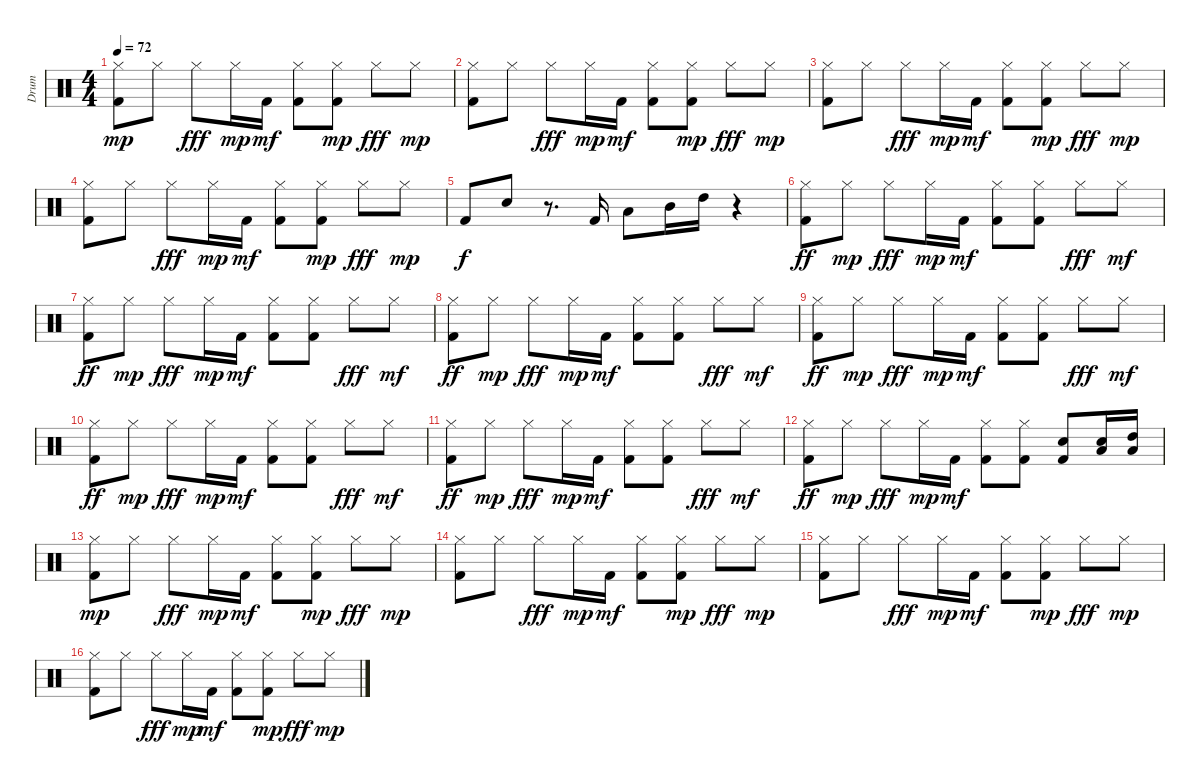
\track ("Drum" "Drum") {instrument percussion}
\staff {score}
\articulation defaults
\ts (4 4)
\tempo 72
\clef neutral
\ks c
("Hi-Hat (closed)" "Kick (hit) 2").8{dy mp} "Hi-Hat (closed)".8 "Hi-Hat (closed)".8{dy fff} "Hi-Hat (closed)".16{dy mp} "Kick (hit) 2".16{dy mf} ("Hi-Hat (closed)" "Kick (hit) 2").8 ("Hi-Hat (closed)" "Kick (hit) 2").8{dy mp} "Hi-Hat (closed)".8{dy fff} "Hi-Hat (closed)".8{dy mp} |
("Hi-Hat (closed)" "Kick (hit) 2").8 "Hi-Hat (closed)".8 "Hi-Hat (closed)".8{dy fff} "Hi-Hat (closed)".16{dy mp} "Kick (hit) 2".16{dy mf} ("Hi-Hat (closed)" "Kick (hit) 2").8 ("Hi-Hat (closed)" "Kick (hit) 2").8{dy mp} "Hi-Hat (closed)".8{dy fff} "Hi-Hat (closed)".8{dy mp} |
("Hi-Hat (closed)" "Kick (hit) 2").8 "Hi-Hat (closed)".8 "Hi-Hat (closed)".8{dy fff} "Hi-Hat (closed)".16{dy mp} "Kick (hit) 2".16{dy mf} ("Hi-Hat (closed)" "Kick (hit) 2").8 ("Hi-Hat (closed)" "Kick (hit) 2").8{dy mp} "Hi-Hat (closed)".8{dy fff} "Hi-Hat (closed)".8{dy mp} |
("Hi-Hat (closed)" "Kick (hit) 2").8 "Hi-Hat (closed)".8 "Hi-Hat (closed)".8{dy fff} "Hi-Hat (closed)".16{dy mp} "Kick (hit) 2".16{dy mf} ("Hi-Hat (closed)" "Kick (hit) 2").8 ("Hi-Hat (closed)" "Kick (hit) 2").8{dy mp} "Hi-Hat (closed)".8{dy fff} "Hi-Hat (closed)".8{dy mp} |
"Kick (hit) 2".8{dy f} "Snare (hit) 2".8 r.8{d} "Kick (hit) 2".16 "Low Floor Tom (hit)".8 "Mid Tom (hit)".16 "High Tom (hit)".16 r.4 |
("Hi-Hat (closed)" "Kick (hit) 2").8{dy ff} "Hi-Hat (closed)".8{dy mp} "Hi-Hat (closed)".8{dy fff} "Hi-Hat (closed)".16{dy mp} "Kick (hit) 2".16{dy mf} ("Hi-Hat (closed)" "Kick (hit) 2").8 ("Hi-Hat (closed)" "Kick (hit) 2").8 "Hi-Hat (closed)".8{dy fff} "Hi-Hat (closed)".8{dy mf} |
("Hi-Hat (closed)" "Kick (hit) 2").8{dy ff} "Hi-Hat (closed)".8{dy mp} "Hi-Hat (closed)".8{dy fff} "Hi-Hat (closed)".16{dy mp} "Kick (hit) 2".16{dy mf} ("Hi-Hat (closed)" "Kick (hit) 2").8 ("Hi-Hat (closed)" "Kick (hit) 2").8 "Hi-Hat (closed)".8{dy fff} "Hi-Hat (closed)".8{dy mf} |
("Hi-Hat (closed)" "Kick (hit) 2").8{dy ff} "Hi-Hat (closed)".8{dy mp} "Hi-Hat (closed)".8{dy fff} "Hi-Hat (closed)".16{dy mp} "Kick (hit) 2".16{dy mf} ("Hi-Hat (closed)" "Kick (hit) 2").8 ("Hi-Hat (closed)" "Kick (hit) 2").8 "Hi-Hat (closed)".8{dy fff} "Hi-Hat (closed)".8{dy mf} |
("Hi-Hat (closed)" "Kick (hit) 2").8{dy ff} "Hi-Hat (closed)".8{dy mp} "Hi-Hat (closed)".8{dy fff} "Hi-Hat (closed)".16{dy mp} "Kick (hit) 2".16{dy mf} ("Hi-Hat (closed)" "Kick (hit) 2").8 ("Hi-Hat (closed)" "Kick (hit) 2").8 "Hi-Hat (closed)".8{dy fff} "Hi-Hat (closed)".8{dy mf} |
("Hi-Hat (closed)" "Kick (hit) 2").8{dy ff} "Hi-Hat (closed)".8{dy mp} "Hi-Hat (closed)".8{dy fff} "Hi-Hat (closed)".16{dy mp} "Kick (hit) 2".16{dy mf} ("Hi-Hat (closed)" "Kick (hit) 2").8 ("Hi-Hat (closed)" "Kick (hit) 2").8 "Hi-Hat (closed)".8{dy fff} "Hi-Hat (closed)".8{dy mf} |
("Hi-Hat (closed)" "Kick (hit) 2").8{dy ff} "Hi-Hat (closed)".8{dy mp} "Hi-Hat (closed)".8{dy fff} "Hi-Hat (closed)".16{dy mp} "Kick (hit) 2".16{dy mf} ("Hi-Hat (closed)" "Kick (hit) 2").8 ("Hi-Hat (closed)" "Kick (hit) 2").8 "Hi-Hat (closed)".8{dy fff} "Hi-Hat (closed)".8{dy mf} |
("Hi-Hat (closed)" "Kick (hit) 2").8{dy ff} "Hi-Hat (closed)".8{dy mp} "Hi-Hat (closed)".8{dy fff} "Hi-Hat (closed)".16{dy mp} "Kick (hit) 2".16{dy mf} ("Hi-Hat (closed)" "Kick (hit) 2").8 ("Hi-Hat (closed)" "Kick (hit) 2").8 ("Kick (hit) 2" "Electric Snare (hit)").8 ("Low Tom (hit)" "Electric Snare (hit)").16 ("Low Tom (hit)" "High Tom (hit)").16 |
("Hi-Hat (closed)" "Kick (hit) 2").8{dy mp} "Hi-Hat (closed)".8 "Hi-Hat (closed)".8{dy fff} "Hi-Hat (closed)".16{dy mp} "Kick (hit) 2".16{dy mf} ("Hi-Hat (closed)" "Kick (hit) 2").8 ("Hi-Hat (closed)" "Kick (hit) 2").8{dy mp} "Hi-Hat (closed)".8{dy fff} "Hi-Hat (closed)".8{dy mp} |
("Hi-Hat (closed)" "Kick (hit) 2").8 "Hi-Hat (closed)".8 "Hi-Hat (closed)".8{dy fff} "Hi-Hat (closed)".16{dy mp} "Kick (hit) 2".16{dy mf} ("Hi-Hat (closed)" "Kick (hit) 2").8 ("Hi-Hat (closed)" "Kick (hit) 2").8{dy mp} "Hi-Hat (closed)".8{dy fff} "Hi-Hat (closed)".8{dy mp} |
("Hi-Hat (closed)" "Kick (hit) 2").8 "Hi-Hat (closed)".8 "Hi-Hat (closed)".8{dy fff} "Hi-Hat (closed)".16{dy mp} "Kick (hit) 2".16{dy mf} ("Hi-Hat (closed)" "Kick (hit) 2").8 ("Hi-Hat (closed)" "Kick (hit) 2").8{dy mp} "Hi-Hat (closed)".8{dy fff} "Hi-Hat (closed)".8{dy mp} |
("Hi-Hat (closed)" "Kick (hit) 2").8 "Hi-Hat (closed)".8 "Hi-Hat (closed)".8{dy fff} "Hi-Hat (closed)".16{dy mp} "Kick (hit) 2".16{dy mf} ("Hi-Hat (closed)" "Kick (hit) 2").8 ("Hi-Hat (closed)" "Kick (hit) 2").8{dy mp} "Hi-Hat (closed)".8{dy fff} "Hi-Hat (closed)".8{dy mp}
